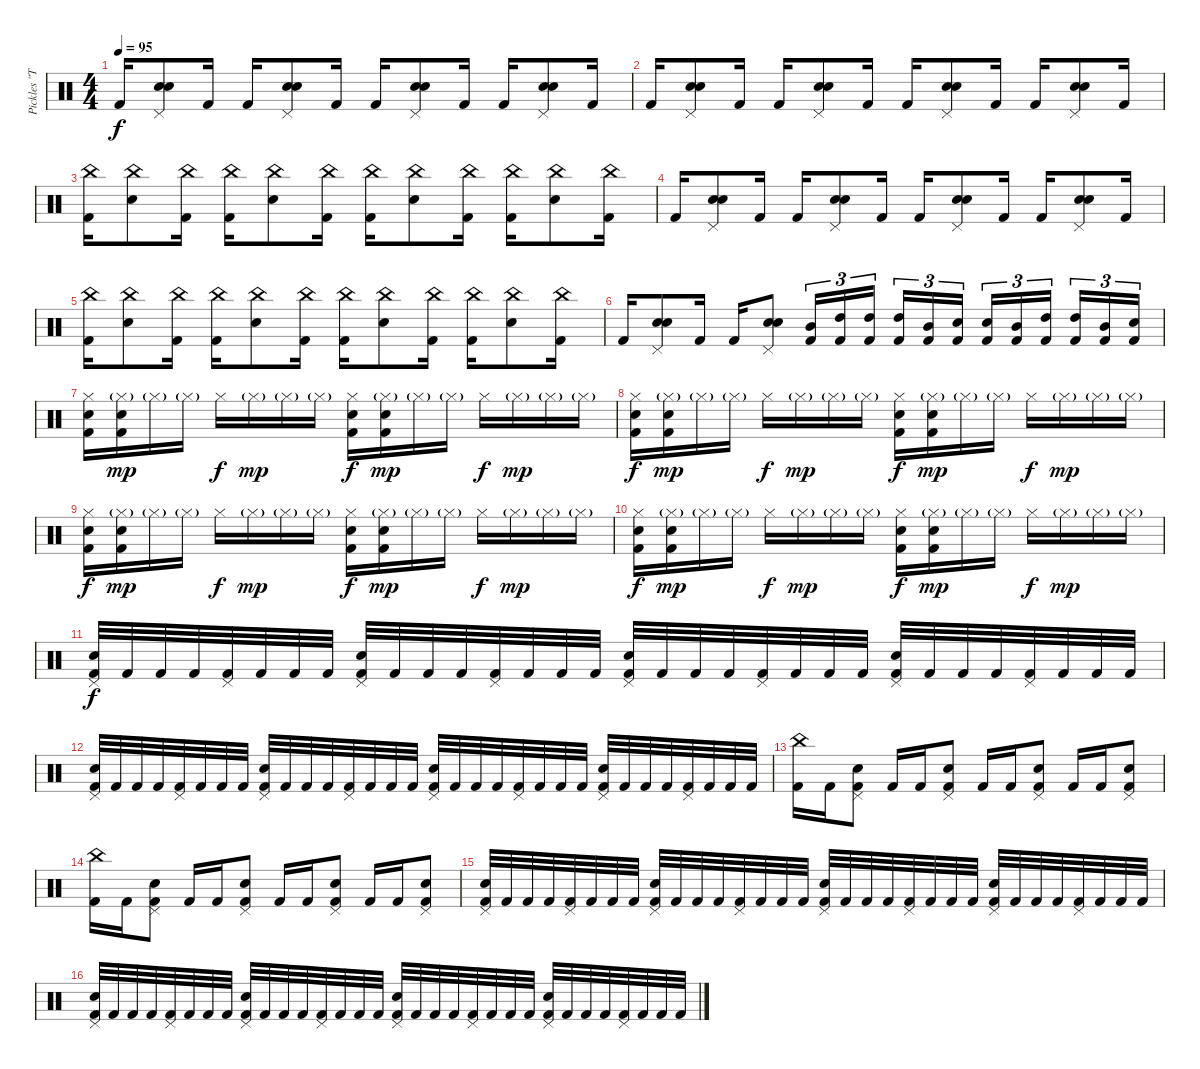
\track ("Pickles \"The Drummer\"" "Pickles \"T") {instrument percussion}
\staff {score}
\articulation defaults
\ts (4 4)
\tempo 95
\clef neutral
\ks c "Kick (hit) 2".16{dy f}
("Electric Snare (hit)" "Pedal Hi-Hat (hit)" "Snare (hit) 2").8 "Kick (hit) 2".16 "Kick (hit) 2".16 ("Electric Snare (hit)" "Pedal Hi-Hat (hit)" "Snare (hit) 2").8 "Kick (hit) 2".16 "Kick (hit) 2".16 ("Electric Snare (hit)" "Pedal Hi-Hat (hit)" "Snare (hit) 2").8 "Kick (hit) 2".16 "Kick (hit) 2".16 ("Electric Snare (hit)" "Pedal Hi-Hat (hit)" "Snare (hit) 2").8 "Kick (hit) 2".16 |
"Kick (hit) 2".16 ("Electric Snare (hit)" "Pedal Hi-Hat (hit)" "Snare (hit) 2").8 "Kick (hit) 2".16 "Kick (hit) 2".16 ("Electric Snare (hit)" "Pedal Hi-Hat (hit)" "Snare (hit) 2").8 "Kick (hit) 2".16 "Kick (hit) 2".16 ("Electric Snare (hit)" "Pedal Hi-Hat (hit)" "Snare (hit) 2").8 "Kick (hit) 2".16 "Kick (hit) 2".16 ("Electric Snare (hit)" "Pedal Hi-Hat (hit)" "Snare (hit) 2").8 "Kick (hit) 2".16 |
("China (hit)" "Kick (hit) 2").16 ("China (hit)" "Snare (hit) 2").8 ("China (hit)" "Kick (hit) 2").16 ("China (hit)" "Kick (hit) 2").16 ("China (hit)" "Snare (hit) 2").8 ("China (hit)" "Kick (hit) 2").16 ("China (hit)" "Kick (hit) 2").16 ("China (hit)" "Snare (hit) 2").8 ("China (hit)" "Kick (hit) 2").16 ("China (hit)" "Kick (hit) 2").16 ("China (hit)" "Snare (hit) 2").8 ("China (hit)" "Kick (hit) 2").16 |
"Kick (hit) 2".16 ("Electric Snare (hit)" "Pedal Hi-Hat (hit)" "Snare (hit) 2").8 "Kick (hit) 2".16 "Kick (hit) 2".16 ("Electric Snare (hit)" "Pedal Hi-Hat (hit)" "Snare (hit) 2").8 "Kick (hit) 2".16 "Kick (hit) 2".16 ("Electric Snare (hit)" "Pedal Hi-Hat (hit)" "Snare (hit) 2").8 "Kick (hit) 2".16 "Kick (hit) 2".16 ("Electric Snare (hit)" "Pedal Hi-Hat (hit)" "Snare (hit) 2").8 "Kick (hit) 2".16 |
("China (hit)" "Kick (hit) 2").16 ("China (hit)" "Snare (hit) 2").8 ("China (hit)" "Kick (hit) 2").16 ("China (hit)" "Kick (hit) 2").16 ("China (hit)" "Snare (hit) 2").8 ("China (hit)" "Kick (hit) 2").16 ("China (hit)" "Kick (hit) 2").16 ("China (hit)" "Snare (hit) 2").8 ("China (hit)" "Kick (hit) 2").16 ("China (hit)" "Kick (hit) 2").16 ("China (hit)" "Snare (hit) 2").8 ("China (hit)" "Kick (hit) 2").16 |
"Kick (hit) 2".16 ("Electric Snare (hit)" "Pedal Hi-Hat (hit)" "Snare (hit) 2").8 "Kick (hit) 2".16 "Kick (hit) 2".16 ("Electric Snare (hit)" "Pedal Hi-Hat (hit)" "Snare (hit) 2").8 ("Mid Tom (hit)" "Kick (hit) 2").16{tu (3 2)} ("High Tom (hit)" "Kick (hit) 2").16{tu (3 2)} ("High Tom (hit)" "Kick (hit) 2").16{tu (3 2)} ("High Tom (hit)" "Kick (hit) 2").16{tu (3 2)} ("Mid Tom (hit)" "Kick (hit) 2").16{tu (3 2)} ("Electric Snare (hit)" "Kick (hit) 2").16{tu (3 2)} ("Electric Snare (hit)" "Kick (hit) 2").16{tu (3 2)} ("Mid Tom (hit)" "Kick (hit) 2").16{tu (3 2)} ("High Tom (hit)" "Kick (hit) 2").16{tu (3 2)} ("High Tom (hit)" "Kick (hit) 2").16{tu (3 2)} ("Mid Tom (hit)" "Kick (hit) 2").16{tu (3 2)} ("Electric Snare (hit)" "Kick (hit) 2").16{tu (3 2)} |
("Hi-Hat (closed)" "Kick (hit) 2" "Snare (hit) 2").16 ("Hi-Hat (closed)"{g} "Kick (hit) 2" "Snare (hit) 2").16{dy mp} "Hi-Hat (closed)"{g}.16 "Hi-Hat (closed)"{g}.16 "Hi-Hat (closed)".16{dy f} "Hi-Hat (closed)"{g}.16{dy mp} "Hi-Hat (closed)"{g}.16 "Hi-Hat (closed)"{g}.16 ("Hi-Hat (closed)" "Kick (hit) 2" "Snare (hit) 2").16{dy f} ("Hi-Hat (closed)"{g} "Kick (hit) 2" "Snare (hit) 2").16{dy mp} "Hi-Hat (closed)"{g}.16 "Hi-Hat (closed)"{g}.16 "Hi-Hat (closed)".16{dy f} "Hi-Hat (closed)"{g}.16{dy mp} "Hi-Hat (closed)"{g}.16 "Hi-Hat (closed)"{g}.16 |
("Hi-Hat (closed)" "Kick (hit) 2" "Snare (hit) 2").16{dy f} ("Hi-Hat (closed)"{g} "Kick (hit) 2" "Snare (hit) 2").16{dy mp} "Hi-Hat (closed)"{g}.16 "Hi-Hat (closed)"{g}.16 "Hi-Hat (closed)".16{dy f} "Hi-Hat (closed)"{g}.16{dy mp} "Hi-Hat (closed)"{g}.16 "Hi-Hat (closed)"{g}.16 ("Hi-Hat (closed)" "Kick (hit) 2" "Snare (hit) 2").16{dy f} ("Hi-Hat (closed)"{g} "Kick (hit) 2" "Snare (hit) 2").16{dy mp} "Hi-Hat (closed)"{g}.16 "Hi-Hat (closed)"{g}.16 "Hi-Hat (closed)".16{dy f} "Hi-Hat (closed)"{g}.16{dy mp} "Hi-Hat (closed)"{g}.16 "Hi-Hat (closed)"{g}.16 |
("Hi-Hat (closed)" "Kick (hit) 2" "Snare (hit) 2").16{dy f} ("Hi-Hat (closed)"{g} "Kick (hit) 2" "Snare (hit) 2").16{dy mp} "Hi-Hat (closed)"{g}.16 "Hi-Hat (closed)"{g}.16 "Hi-Hat (closed)".16{dy f} "Hi-Hat (closed)"{g}.16{dy mp} "Hi-Hat (closed)"{g}.16 "Hi-Hat (closed)"{g}.16 ("Hi-Hat (closed)" "Kick (hit) 2" "Snare (hit) 2").16{dy f} ("Hi-Hat (closed)"{g} "Kick (hit) 2" "Snare (hit) 2").16{dy mp} "Hi-Hat (closed)"{g}.16 "Hi-Hat (closed)"{g}.16 "Hi-Hat (closed)".16{dy f} "Hi-Hat (closed)"{g}.16{dy mp} "Hi-Hat (closed)"{g}.16 "Hi-Hat (closed)"{g}.16 |
("Hi-Hat (closed)" "Kick (hit) 2" "Snare (hit) 2").16{dy f} ("Hi-Hat (closed)"{g} "Kick (hit) 2" "Snare (hit) 2").16{dy mp} "Hi-Hat (closed)"{g}.16 "Hi-Hat (closed)"{g}.16 "Hi-Hat (closed)".16{dy f} "Hi-Hat (closed)"{g}.16{dy mp} "Hi-Hat (closed)"{g}.16 "Hi-Hat (closed)"{g}.16 ("Hi-Hat (closed)" "Kick (hit) 2" "Snare (hit) 2").16{dy f} ("Hi-Hat (closed)"{g} "Kick (hit) 2" "Snare (hit) 2").16{dy mp} "Hi-Hat (closed)"{g}.16 "Hi-Hat (closed)"{g}.16 "Hi-Hat (closed)".16{dy f} "Hi-Hat (closed)"{g}.16{dy mp} "Hi-Hat (closed)"{g}.16 "Hi-Hat (closed)"{g}.16 |
("Pedal Hi-Hat (hit)" "Electric Snare (hit)" "Kick (hit) 2").32{dy f} "Kick (hit) 2".32 "Kick (hit) 2".32 "Kick (hit) 2".32 ("Pedal Hi-Hat (hit)" "Kick (hit) 2").32 "Kick (hit) 2".32 "Kick (hit) 2".32 "Kick (hit) 2".32 ("Pedal Hi-Hat (hit)" "Electric Snare (hit)" "Kick (hit) 2").32 "Kick (hit) 2".32 "Kick (hit) 2".32 "Kick (hit) 2".32 ("Pedal Hi-Hat (hit)" "Kick (hit) 2").32 "Kick (hit) 2".32 "Kick (hit) 2".32 "Kick (hit) 2".32 ("Pedal Hi-Hat (hit)" "Electric Snare (hit)" "Kick (hit) 2").32 "Kick (hit) 2".32 "Kick (hit) 2".32 "Kick (hit) 2".32 ("Pedal Hi-Hat (hit)" "Kick (hit) 2").32 "Kick (hit) 2".32 "Kick (hit) 2".32 "Kick (hit) 2".32 ("Pedal Hi-Hat (hit)" "Electric Snare (hit)" "Kick (hit) 2").32 "Kick (hit) 2".32 "Kick (hit) 2".32 "Kick (hit) 2".32 ("Pedal Hi-Hat (hit)" "Kick (hit) 2").32 "Kick (hit) 2".32 "Kick (hit) 2".32 "Kick (hit) 2".32 |
("Pedal Hi-Hat (hit)" "Electric Snare (hit)" "Kick (hit) 2").32 "Kick (hit) 2".32 "Kick (hit) 2".32 "Kick (hit) 2".32 ("Pedal Hi-Hat (hit)" "Kick (hit) 2").32 "Kick (hit) 2".32 "Kick (hit) 2".32 "Kick (hit) 2".32 ("Pedal Hi-Hat (hit)" "Electric Snare (hit)" "Kick (hit) 2").32 "Kick (hit) 2".32 "Kick (hit) 2".32 "Kick (hit) 2".32 ("Pedal Hi-Hat (hit)" "Kick (hit) 2").32 "Kick (hit) 2".32 "Kick (hit) 2".32 "Kick (hit) 2".32 ("Pedal Hi-Hat (hit)" "Electric Snare (hit)" "Kick (hit) 2").32 "Kick (hit) 2".32 "Kick (hit) 2".32 "Kick (hit) 2".32 ("Pedal Hi-Hat (hit)" "Kick (hit) 2").32 "Kick (hit) 2".32 "Kick (hit) 2".32 "Kick (hit) 2".32 ("Pedal Hi-Hat (hit)" "Electric Snare (hit)" "Kick (hit) 2").32 "Kick (hit) 2".32 "Kick (hit) 2".32 "Kick (hit) 2".32 ("Pedal Hi-Hat (hit)" "Kick (hit) 2").32 "Kick (hit) 2".32 "Kick (hit) 2".32 "Kick (hit) 2".32 |
("China (hit)" "Kick (hit) 2").16 "Kick (hit) 2".16 ("Pedal Hi-Hat (hit)" "Electric Snare (hit)" "Kick (hit) 2").8 "Kick (hit) 2".16 "Kick (hit) 2".16 ("Pedal Hi-Hat (hit)" "Electric Snare (hit)" "Kick (hit) 2").8 "Kick (hit) 2".16 "Kick (hit) 2".16 ("Pedal Hi-Hat (hit)" "Electric Snare (hit)" "Kick (hit) 2").8 "Kick (hit) 2".16 "Kick (hit) 2".16 ("Pedal Hi-Hat (hit)" "Electric Snare (hit)" "Kick (hit) 2").8 |
("China (hit)" "Kick (hit) 2").16 "Kick (hit) 2".16 ("Pedal Hi-Hat (hit)" "Electric Snare (hit)" "Kick (hit) 2").8 "Kick (hit) 2".16 "Kick (hit) 2".16 ("Pedal Hi-Hat (hit)" "Electric Snare (hit)" "Kick (hit) 2").8 "Kick (hit) 2".16 "Kick (hit) 2".16 ("Pedal Hi-Hat (hit)" "Electric Snare (hit)" "Kick (hit) 2").8 "Kick (hit) 2".16 "Kick (hit) 2".16 ("Pedal Hi-Hat (hit)" "Electric Snare (hit)" "Kick (hit) 2").8 |
("Pedal Hi-Hat (hit)" "Electric Snare (hit)" "Kick (hit) 2").32 "Kick (hit) 2".32 "Kick (hit) 2".32 "Kick (hit) 2".32 ("Pedal Hi-Hat (hit)" "Kick (hit) 2").32 "Kick (hit) 2".32 "Kick (hit) 2".32 "Kick (hit) 2".32 ("Pedal Hi-Hat (hit)" "Electric Snare (hit)" "Kick (hit) 2").32 "Kick (hit) 2".32 "Kick (hit) 2".32 "Kick (hit) 2".32 ("Pedal Hi-Hat (hit)" "Kick (hit) 2").32 "Kick (hit) 2".32 "Kick (hit) 2".32 "Kick (hit) 2".32 ("Pedal Hi-Hat (hit)" "Electric Snare (hit)" "Kick (hit) 2").32 "Kick (hit) 2".32 "Kick (hit) 2".32 "Kick (hit) 2".32 ("Pedal Hi-Hat (hit)" "Kick (hit) 2").32 "Kick (hit) 2".32 "Kick (hit) 2".32 "Kick (hit) 2".32 ("Pedal Hi-Hat (hit)" "Electric Snare (hit)" "Kick (hit) 2").32 "Kick (hit) 2".32 "Kick (hit) 2".32 "Kick (hit) 2".32 ("Pedal Hi-Hat (hit)" "Kick (hit) 2").32 "Kick (hit) 2".32 "Kick (hit) 2".32 "Kick (hit) 2".32 |
("Pedal Hi-Hat (hit)" "Electric Snare (hit)" "Kick (hit) 2").32 "Kick (hit) 2".32 "Kick (hit) 2".32 "Kick (hit) 2".32 ("Pedal Hi-Hat (hit)" "Kick (hit) 2").32 "Kick (hit) 2".32 "Kick (hit) 2".32 "Kick (hit) 2".32 ("Pedal Hi-Hat (hit)" "Electric Snare (hit)" "Kick (hit) 2").32 "Kick (hit) 2".32 "Kick (hit) 2".32 "Kick (hit) 2".32 ("Pedal Hi-Hat (hit)" "Kick (hit) 2").32 "Kick (hit) 2".32 "Kick (hit) 2".32 "Kick (hit) 2".32 ("Pedal Hi-Hat (hit)" "Electric Snare (hit)" "Kick (hit) 2").32 "Kick (hit) 2".32 "Kick (hit) 2".32 "Kick (hit) 2".32 ("Pedal Hi-Hat (hit)" "Kick (hit) 2").32 "Kick (hit) 2".32 "Kick (hit) 2".32 "Kick (hit) 2".32 ("Pedal Hi-Hat (hit)" "Electric Snare (hit)" "Kick (hit) 2").32 "Kick (hit) 2".32 "Kick (hit) 2".32 "Kick (hit) 2".32 ("Pedal Hi-Hat (hit)" "Kick (hit) 2").32 "Kick (hit) 2".32 "Kick (hit) 2".32 "Kick (hit) 2".32
